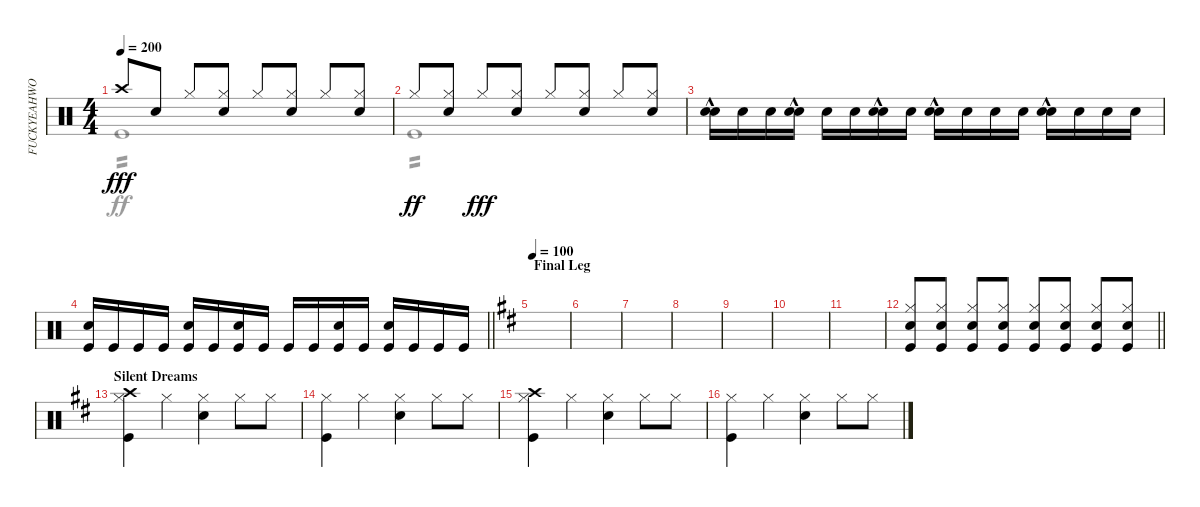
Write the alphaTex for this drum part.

\track ("FUCKYEAHWOOTDAVEMACKINTOSH!(Percussion)" "FUCKYEAHWO") {instrument percussion}
\staff {score}
\articulation defaults
\voice
\ts (4 4)
\tempo 200
\clef neutral
\ks c "Crash high (hit)".8{dy fff} "Snare (hit) 2".8 "Hi-Hat (closed)".8
("Snare (hit) 2" "Hi-Hat (closed)").8 "Hi-Hat (closed)".8 ("Snare (hit) 2" "Hi-Hat (closed)").8 "Hi-Hat (closed)".8 ("Snare (hit) 2" "Hi-Hat (closed)").8 |
"Hi-Hat (closed)".8{dy ff} ("Snare (hit) 2" "Hi-Hat (closed)").8 "Hi-Hat (closed)".8{dy fff} ("Snare (hit) 2" "Hi-Hat (closed)").8 "Hi-Hat (closed)".8 ("Snare (hit) 2" "Hi-Hat (closed)").8 "Hi-Hat (closed)".8 ("Snare (hit) 2" "Hi-Hat (closed)").8 |
("Snare (hit) 2"{hac} "Electric Snare (hit)").16 "Snare (hit) 2".16 "Snare (hit) 2".16 ("Snare (hit) 2"{hac} "Electric Snare (hit)").16 "Snare (hit) 2".16 "Snare (hit) 2".16 ("Snare (hit) 2"{hac} "Electric Snare (hit)").16 "Snare (hit) 2".16 ("Snare (hit) 2"{hac} "Electric Snare (hit)").16 "Snare (hit) 2".16 "Snare (hit) 2".16 "Snare (hit) 2".16 ("Snare (hit) 2"{hac} "Electric Snare (hit)").16 "Snare (hit) 2".16 "Snare (hit) 2".16 "Snare (hit) 2".16 |
\barLineRight lightlight
("Kick (hit)" "Snare (hit) 2").16 "Kick (hit)".16 "Kick (hit)".16 "Kick (hit)".16 ("Kick (hit)" "Snare (hit) 2").16 "Kick (hit)".16 ("Kick (hit)" "Snare (hit) 2").16 "Kick (hit)".16 "Kick (hit)".16 "Kick (hit)".16 ("Kick (hit)" "Snare (hit) 2").16 "Kick (hit)".16 ("Kick (hit)" "Snare (hit) 2").16 "Kick (hit)".16 "Kick (hit)".16 "Kick (hit)".16 |
\section ("" "Final Leg")
\tempo 100
\ks d
|
|
|
|
|
|
|
\barLineRight lightlight
("Snare (hit) 2" "Kick (hit)" "Hi-Hat (closed)").8{volume 16} ("Snare (hit) 2" "Kick (hit)" "Hi-Hat (closed)").8 ("Snare (hit) 2" "Kick (hit)" "Hi-Hat (closed)").8 ("Snare (hit) 2" "Kick (hit)" "Hi-Hat (closed)").8 ("Snare (hit) 2" "Kick (hit)" "Hi-Hat (closed)").8 ("Snare (hit) 2" "Kick (hit)" "Hi-Hat (closed)").8 ("Snare (hit) 2" "Kick (hit)" "Hi-Hat (closed)").8 ("Snare (hit) 2" "Kick (hit)" "Hi-Hat (closed)").8 |
\section ("" "Silent Dreams")
("Hi-Hat (closed)" "Kick (hit)" "Crash high (hit)").4 "Hi-Hat (closed)".4 ("Snare (hit) 2" "Hi-Hat (closed)").4 "Hi-Hat (closed)".8 "Hi-Hat (closed)".8 |
("Hi-Hat (closed)" "Kick (hit)").4 "Hi-Hat (closed)".4 ("Snare (hit) 2" "Hi-Hat (closed)").4 "Hi-Hat (closed)".8 "Hi-Hat (closed)".8 |
("Hi-Hat (closed)" "Kick (hit)" "Crash high (hit)").4 "Hi-Hat (closed)".4 ("Snare (hit) 2" "Hi-Hat (closed)").4 "Hi-Hat (closed)".8 "Hi-Hat (closed)".8 |
("Hi-Hat (closed)" "Kick (hit)").4 "Hi-Hat (closed)".4 ("Snare (hit) 2" "Hi-Hat (closed)").4 "Hi-Hat (closed)".8 "Hi-Hat (closed)".8
\voice
\clef neutral
\ottava regular
\simile none
\ks c "Kick (hit)".1{tp 2 dy ff}
|
"Kick (hit)".1{tp 2} |
|
\barLineRight lightlight
|
\ks d
|
|
|
|
|
|
|
\barLineRight lightlight
|
|
|
|
